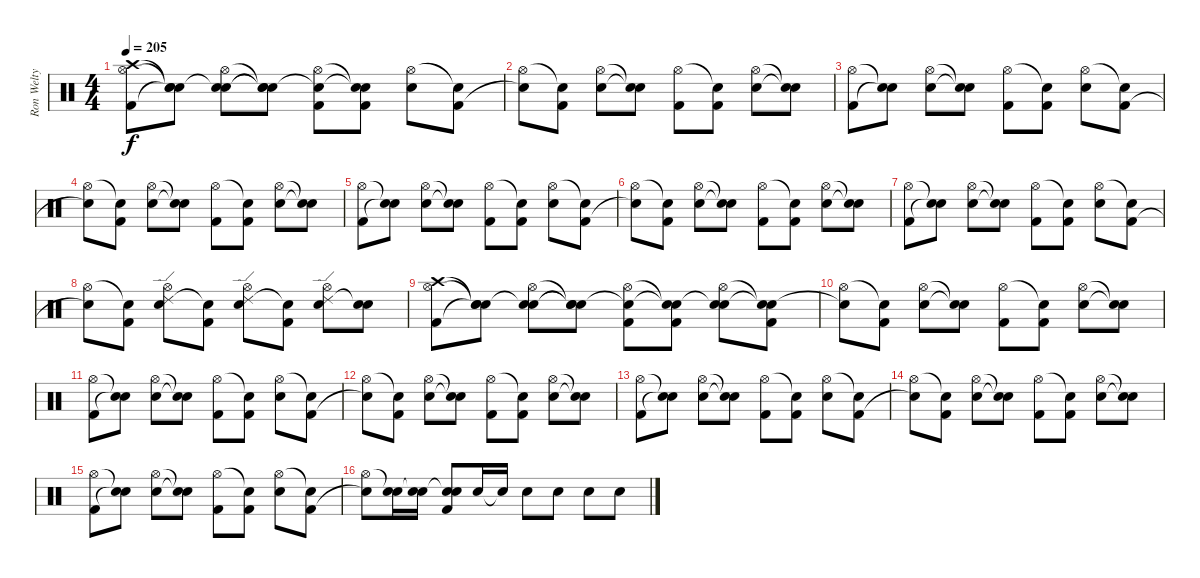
\track ("Ron Welty" "Ron Welty") {instrument percussion}
\staff {score}
\articulation defaults
\ts (4 4)
\tempo 205
\clef neutral
\ks c
("Crash high (hit)" "Hi-Hat (open)" "Kick (hit) 2").8{dy f} ("Snare (hit)"{t} "Snare (hit)"{t} "Snare (hit)"{t}).8 ("Snare (hit)"{t} "Hi-Hat (open)" "Electric Snare (hit)").8 ("Snare (hit)"{t} "Snare (hit)"{t} "Snare (hit)"{t}).8 ("Snare (hit)"{t} "Hi-Hat (open)" "Kick (hit) 2").8 ("Snare (hit)"{t} "Snare (hit)"{t} "Kick (hit) 2").8 ("Hi-Hat (open)" "Electric Snare (hit)").8 ("Snare (hit)"{t} "Kick (hit) 2").8 |
("Hi-Hat (open)" "Snare (hit)"{t}).8 ("Snare (hit)"{t} "Kick (hit) 2").8 ("Hi-Hat (open)" "Electric Snare (hit)").8 ("Snare (hit)"{t} "Snare (hit)"{t}).8 ("Hi-Hat (open)" "Kick (hit) 2").8 ("Snare (hit)"{t} "Kick (hit) 2").8 ("Hi-Hat (open)" "Electric Snare (hit)").8 ("Snare (hit)"{t} "Snare (hit)"{t}).8 |
("Hi-Hat (open)" "Kick (hit) 2").8 ("Snare (hit)"{t} "Snare (hit)"{t}).8 ("Hi-Hat (open)" "Electric Snare (hit)").8 ("Snare (hit)"{t} "Snare (hit)"{t}).8 ("Hi-Hat (open)" "Kick (hit) 2").8 ("Snare (hit)"{t} "Kick (hit) 2").8 ("Hi-Hat (open)" "Electric Snare (hit)").8 ("Snare (hit)"{t} "Kick (hit) 2").8 |
("Hi-Hat (open)" "Snare (hit)"{t}).8 ("Snare (hit)"{t} "Kick (hit) 2").8 ("Hi-Hat (open)" "Electric Snare (hit)").8 ("Snare (hit)"{t} "Snare (hit)"{t}).8 ("Hi-Hat (open)" "Kick (hit) 2").8 ("Snare (hit)"{t} "Kick (hit) 2").8 ("Hi-Hat (open)" "Electric Snare (hit)").8 ("Snare (hit)"{t} "Snare (hit)"{t}).8 |
("Hi-Hat (open)" "Kick (hit) 2").8 ("Snare (hit)"{t} "Snare (hit)"{t}).8 ("Hi-Hat (open)" "Electric Snare (hit)").8 ("Snare (hit)"{t} "Snare (hit)"{t}).8 ("Hi-Hat (open)" "Kick (hit) 2").8 ("Snare (hit)"{t} "Kick (hit) 2").8 ("Hi-Hat (open)" "Electric Snare (hit)").8 ("Snare (hit)"{t} "Kick (hit) 2").8 |
("Hi-Hat (open)" "Snare (hit)"{t}).8 ("Snare (hit)"{t} "Kick (hit) 2").8 ("Hi-Hat (open)" "Electric Snare (hit)").8 ("Snare (hit)"{t} "Snare (hit)"{t}).8 ("Hi-Hat (open)" "Kick (hit) 2").8 ("Snare (hit)"{t} "Kick (hit) 2").8 ("Hi-Hat (open)" "Electric Snare (hit)").8 ("Snare (hit)"{t} "Snare (hit)"{t}).8 |
("Hi-Hat (open)" "Kick (hit) 2").8 ("Snare (hit)"{t} "Snare (hit)"{t}).8 ("Hi-Hat (open)" "Electric Snare (hit)").8 ("Snare (hit)"{t} "Snare (hit)"{t}).8 ("Hi-Hat (open)" "Kick (hit) 2").8 ("Snare (hit)"{t} "Kick (hit) 2").8 ("Hi-Hat (open)" "Electric Snare (hit)").8 ("Snare (hit)"{t} "Kick (hit) 2").8 |
("Hi-Hat (open)" "Snare (hit)"{t}).8 ("Snare (hit)"{t} "Kick (hit) 2").8 ("Ride (edge) 2" "Hi-Hat (open)" "Electric Snare (hit)").8 ("Snare (hit)"{t} "Kick (hit) 2").8 ("Ride (edge) 2" "Hi-Hat (open)" "Electric Snare (hit)").8 ("Snare (hit)"{t} "Kick (hit) 2").8 ("Ride (edge) 2" "Hi-Hat (open)" "Electric Snare (hit)").8 ("Snare (hit)"{t} "Electric Snare (hit)").8 |
("Crash high (hit)" "Hi-Hat (open)" "Kick (hit) 2").8 ("Snare (hit)"{t} "Snare (hit)"{t} "Snare (hit)"{t}).8 ("Snare (hit)"{t} "Hi-Hat (open)" "Electric Snare (hit)").8 ("Snare (hit)"{t} "Snare (hit)"{t} "Snare (hit)"{t}).8 ("Snare (hit)"{t} "Hi-Hat (open)" "Kick (hit) 2").8 ("Snare (hit)"{t} "Snare (hit)"{t} "Kick (hit) 2").8 ("Snare (hit)"{t} "Hi-Hat (open)" "Electric Snare (hit)").8 ("Snare (hit)"{t} "Snare (hit)"{t} "Kick (hit) 2").8 |
("Hi-Hat (open)" "Snare (hit)"{t}).8 ("Snare (hit)"{t} "Kick (hit) 2").8 ("Hi-Hat (open)" "Electric Snare (hit)").8 ("Snare (hit)"{t} "Snare (hit)"{t}).8 ("Hi-Hat (open)" "Kick (hit) 2").8 ("Snare (hit)"{t} "Kick (hit) 2").8 ("Hi-Hat (open)" "Electric Snare (hit)").8 ("Snare (hit)"{t} "Snare (hit)"{t}).8 |
("Hi-Hat (open)" "Kick (hit) 2").8 ("Snare (hit)"{t} "Snare (hit)"{t}).8 ("Hi-Hat (open)" "Electric Snare (hit)").8 ("Snare (hit)"{t} "Snare (hit)"{t}).8 ("Hi-Hat (open)" "Kick (hit) 2").8 ("Snare (hit)"{t} "Kick (hit) 2").8 ("Hi-Hat (open)" "Electric Snare (hit)").8 ("Snare (hit)"{t} "Kick (hit) 2").8 |
("Hi-Hat (open)" "Snare (hit)"{t}).8 ("Snare (hit)"{t} "Kick (hit) 2").8 ("Hi-Hat (open)" "Electric Snare (hit)").8 ("Snare (hit)"{t} "Snare (hit)"{t}).8 ("Hi-Hat (open)" "Kick (hit) 2").8 ("Snare (hit)"{t} "Kick (hit) 2").8 ("Hi-Hat (open)" "Electric Snare (hit)").8 ("Snare (hit)"{t} "Snare (hit)"{t}).8 |
("Hi-Hat (open)" "Kick (hit) 2").8 ("Snare (hit)"{t} "Snare (hit)"{t}).8 ("Hi-Hat (open)" "Electric Snare (hit)").8 ("Snare (hit)"{t} "Snare (hit)"{t}).8 ("Hi-Hat (open)" "Kick (hit) 2").8 ("Snare (hit)"{t} "Kick (hit) 2").8 ("Hi-Hat (open)" "Electric Snare (hit)").8 ("Snare (hit)"{t} "Kick (hit) 2").8 |
("Hi-Hat (open)" "Snare (hit)"{t}).8 ("Snare (hit)"{t} "Kick (hit) 2").8 ("Hi-Hat (open)" "Electric Snare (hit)").8 ("Snare (hit)"{t} "Snare (hit)"{t}).8 ("Hi-Hat (open)" "Kick (hit) 2").8 ("Snare (hit)"{t} "Kick (hit) 2").8 ("Hi-Hat (open)" "Electric Snare (hit)").8 ("Snare (hit)"{t} "Snare (hit)"{t}).8 |
("Hi-Hat (open)" "Kick (hit) 2").8 ("Snare (hit)"{t} "Snare (hit)"{t}).8 ("Hi-Hat (open)" "Electric Snare (hit)").8 ("Snare (hit)"{t} "Snare (hit)"{t}).8 ("Hi-Hat (open)" "Kick (hit) 2").8 ("Snare (hit)"{t} "Kick (hit) 2").8 ("Hi-Hat (open)" "Electric Snare (hit)").8 ("Snare (hit)"{t} "Kick (hit) 2").8 |
("Hi-Hat (open)" "Snare (hit)"{t}).8 ("Snare (hit)"{t} "Electric Snare (hit)").16 ("Snare (hit)"{t} "Electric Snare (hit)").16 ("Snare (hit)"{t} "Electric Snare (hit)" "Kick (hit) 2").8 "Electric Snare (hit)".16 "Electric Snare (hit)"{t}.16 "Electric Snare (hit)".8 "Electric Snare (hit)".8 "Electric Snare (hit)".8 "Electric Snare (hit)".8
